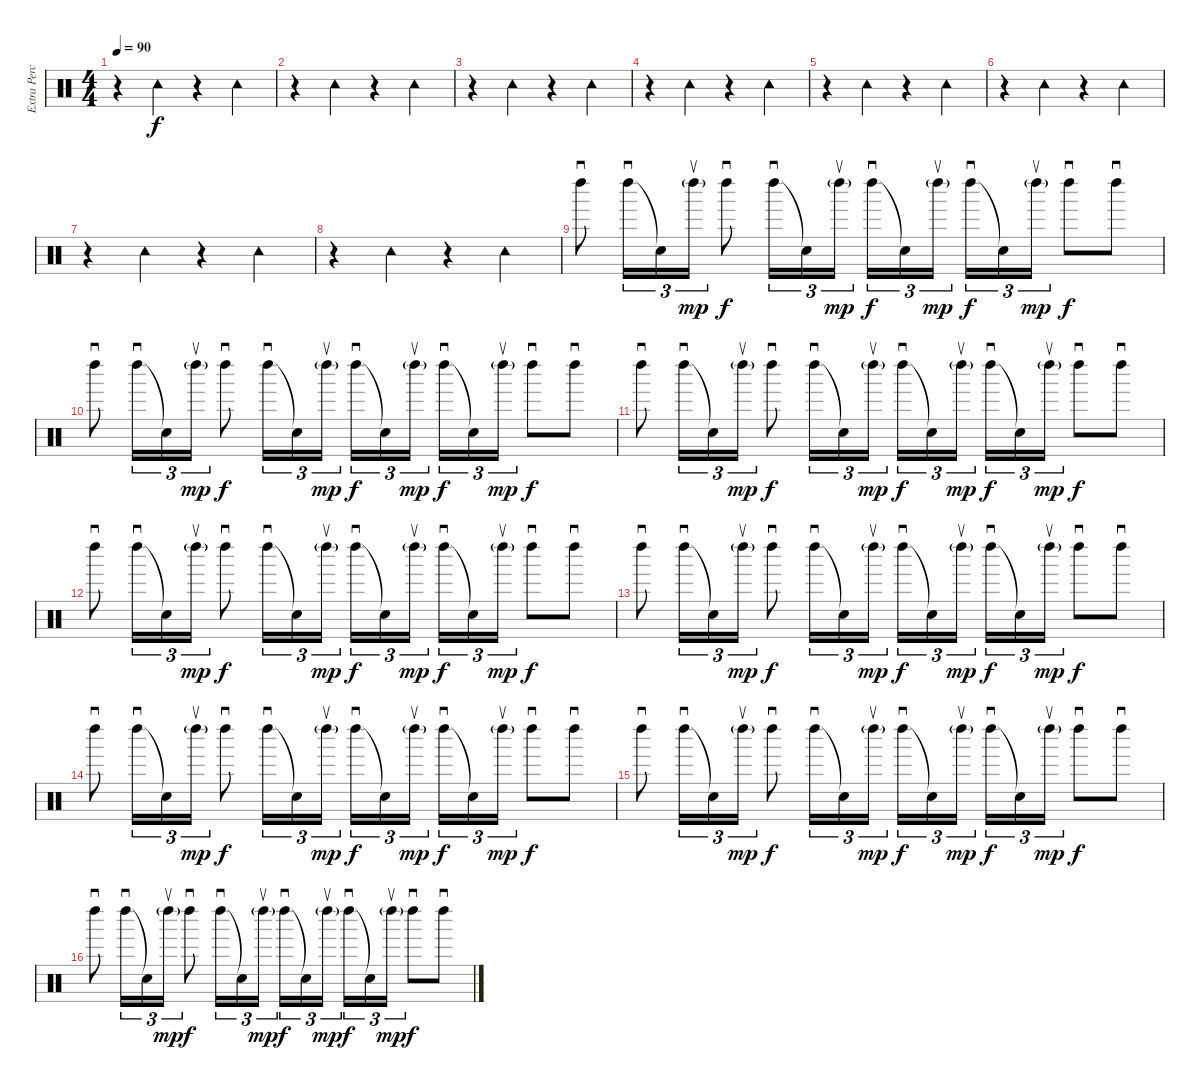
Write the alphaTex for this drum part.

\track ("Extra Percussion" "Extra Perc") {instrument percussion}
\staff {score}
\articulation defaults
\ts (4 4)
\tempo 90
\clef neutral
\ks c
r.4{dy f} "Tambourine (hit)".4 r.4 "Tambourine (hit)".4 |
r.4 "Tambourine (hit)".4 r.4 "Tambourine (hit)".4 |
r.4 "Tambourine (hit)".4 r.4 "Tambourine (hit)".4 |
r.4 "Tambourine (hit)".4 r.4 "Tambourine (hit)".4 |
r.4 "Tambourine (hit)".4 r.4 "Tambourine (hit)".4 |
r.4 "Tambourine (hit)".4 r.4 "Tambourine (hit)".4 |
r.4 "Tambourine (hit)".4 r.4 "Tambourine (hit)".4 |
r.4 "Tambourine (hit)".4 r.4 "Tambourine (hit)".4 |
"Left Maraca (hit)".8{sd} "Left Maraca (hit)".16{sd tu (3 2)} "Snare (hit)"{t}.16{tu (3 2)} "Left Maraca (hit)"{g}.16{su tu (3 2) dy mp} "Left Maraca (hit)".8{sd dy f} "Left Maraca (hit)".16{sd tu (3 2)} "Snare (hit)"{t}.16{tu (3 2)} "Left Maraca (hit)"{g}.16{su tu (3 2) dy mp} "Left Maraca (hit)".16{sd tu (3 2) dy f} "Snare (hit)"{t}.16{tu (3 2)} "Left Maraca (hit)"{g}.16{su tu (3 2) dy mp} "Left Maraca (hit)".16{sd tu (3 2) dy f} "Snare (hit)"{t}.16{tu (3 2)} "Left Maraca (hit)"{g}.16{su tu (3 2) dy mp} "Left Maraca (hit)".8{sd dy f} "Left Maraca (hit)".8{sd} |
"Left Maraca (hit)".8{sd} "Left Maraca (hit)".16{sd tu (3 2)} "Snare (hit)"{t}.16{tu (3 2)} "Left Maraca (hit)"{g}.16{su tu (3 2) dy mp} "Left Maraca (hit)".8{sd dy f} "Left Maraca (hit)".16{sd tu (3 2)} "Snare (hit)"{t}.16{tu (3 2)} "Left Maraca (hit)"{g}.16{su tu (3 2) dy mp} "Left Maraca (hit)".16{sd tu (3 2) dy f} "Snare (hit)"{t}.16{tu (3 2)} "Left Maraca (hit)"{g}.16{su tu (3 2) dy mp} "Left Maraca (hit)".16{sd tu (3 2) dy f} "Snare (hit)"{t}.16{tu (3 2)} "Left Maraca (hit)"{g}.16{su tu (3 2) dy mp} "Left Maraca (hit)".8{sd dy f} "Left Maraca (hit)".8{sd} |
"Left Maraca (hit)".8{sd} "Left Maraca (hit)".16{sd tu (3 2)} "Snare (hit)"{t}.16{tu (3 2)} "Left Maraca (hit)"{g}.16{su tu (3 2) dy mp} "Left Maraca (hit)".8{sd dy f} "Left Maraca (hit)".16{sd tu (3 2)} "Snare (hit)"{t}.16{tu (3 2)} "Left Maraca (hit)"{g}.16{su tu (3 2) dy mp} "Left Maraca (hit)".16{sd tu (3 2) dy f} "Snare (hit)"{t}.16{tu (3 2)} "Left Maraca (hit)"{g}.16{su tu (3 2) dy mp} "Left Maraca (hit)".16{sd tu (3 2) dy f} "Snare (hit)"{t}.16{tu (3 2)} "Left Maraca (hit)"{g}.16{su tu (3 2) dy mp} "Left Maraca (hit)".8{sd dy f} "Left Maraca (hit)".8{sd} |
"Left Maraca (hit)".8{sd} "Left Maraca (hit)".16{sd tu (3 2)} "Snare (hit)"{t}.16{tu (3 2)} "Left Maraca (hit)"{g}.16{su tu (3 2) dy mp} "Left Maraca (hit)".8{sd dy f} "Left Maraca (hit)".16{sd tu (3 2)} "Snare (hit)"{t}.16{tu (3 2)} "Left Maraca (hit)"{g}.16{su tu (3 2) dy mp} "Left Maraca (hit)".16{sd tu (3 2) dy f} "Snare (hit)"{t}.16{tu (3 2)} "Left Maraca (hit)"{g}.16{su tu (3 2) dy mp} "Left Maraca (hit)".16{sd tu (3 2) dy f} "Snare (hit)"{t}.16{tu (3 2)} "Left Maraca (hit)"{g}.16{su tu (3 2) dy mp} "Left Maraca (hit)".8{sd dy f} "Left Maraca (hit)".8{sd} |
"Left Maraca (hit)".8{sd} "Left Maraca (hit)".16{sd tu (3 2)} "Snare (hit)"{t}.16{tu (3 2)} "Left Maraca (hit)"{g}.16{su tu (3 2) dy mp} "Left Maraca (hit)".8{sd dy f} "Left Maraca (hit)".16{sd tu (3 2)} "Snare (hit)"{t}.16{tu (3 2)} "Left Maraca (hit)"{g}.16{su tu (3 2) dy mp} "Left Maraca (hit)".16{sd tu (3 2) dy f} "Snare (hit)"{t}.16{tu (3 2)} "Left Maraca (hit)"{g}.16{su tu (3 2) dy mp} "Left Maraca (hit)".16{sd tu (3 2) dy f} "Snare (hit)"{t}.16{tu (3 2)} "Left Maraca (hit)"{g}.16{su tu (3 2) dy mp} "Left Maraca (hit)".8{sd dy f} "Left Maraca (hit)".8{sd} |
"Left Maraca (hit)".8{sd} "Left Maraca (hit)".16{sd tu (3 2)} "Snare (hit)"{t}.16{tu (3 2)} "Left Maraca (hit)"{g}.16{su tu (3 2) dy mp} "Left Maraca (hit)".8{sd dy f} "Left Maraca (hit)".16{sd tu (3 2)} "Snare (hit)"{t}.16{tu (3 2)} "Left Maraca (hit)"{g}.16{su tu (3 2) dy mp} "Left Maraca (hit)".16{sd tu (3 2) dy f} "Snare (hit)"{t}.16{tu (3 2)} "Left Maraca (hit)"{g}.16{su tu (3 2) dy mp} "Left Maraca (hit)".16{sd tu (3 2) dy f} "Snare (hit)"{t}.16{tu (3 2)} "Left Maraca (hit)"{g}.16{su tu (3 2) dy mp} "Left Maraca (hit)".8{sd dy f} "Left Maraca (hit)".8{sd} |
"Left Maraca (hit)".8{sd} "Left Maraca (hit)".16{sd tu (3 2)} "Snare (hit)"{t}.16{tu (3 2)} "Left Maraca (hit)"{g}.16{su tu (3 2) dy mp} "Left Maraca (hit)".8{sd dy f} "Left Maraca (hit)".16{sd tu (3 2)} "Snare (hit)"{t}.16{tu (3 2)} "Left Maraca (hit)"{g}.16{su tu (3 2) dy mp} "Left Maraca (hit)".16{sd tu (3 2) dy f} "Snare (hit)"{t}.16{tu (3 2)} "Left Maraca (hit)"{g}.16{su tu (3 2) dy mp} "Left Maraca (hit)".16{sd tu (3 2) dy f} "Snare (hit)"{t}.16{tu (3 2)} "Left Maraca (hit)"{g}.16{su tu (3 2) dy mp} "Left Maraca (hit)".8{sd dy f} "Left Maraca (hit)".8{sd} |
"Left Maraca (hit)".8{sd} "Left Maraca (hit)".16{sd tu (3 2)} "Snare (hit)"{t}.16{tu (3 2)} "Left Maraca (hit)"{g}.16{su tu (3 2) dy mp} "Left Maraca (hit)".8{sd dy f} "Left Maraca (hit)".16{sd tu (3 2)} "Snare (hit)"{t}.16{tu (3 2)} "Left Maraca (hit)"{g}.16{su tu (3 2) dy mp} "Left Maraca (hit)".16{sd tu (3 2) dy f} "Snare (hit)"{t}.16{tu (3 2)} "Left Maraca (hit)"{g}.16{su tu (3 2) dy mp} "Left Maraca (hit)".16{sd tu (3 2) dy f} "Snare (hit)"{t}.16{tu (3 2)} "Left Maraca (hit)"{g}.16{su tu (3 2) dy mp} "Left Maraca (hit)".8{sd dy f} "Left Maraca (hit)".8{sd}
